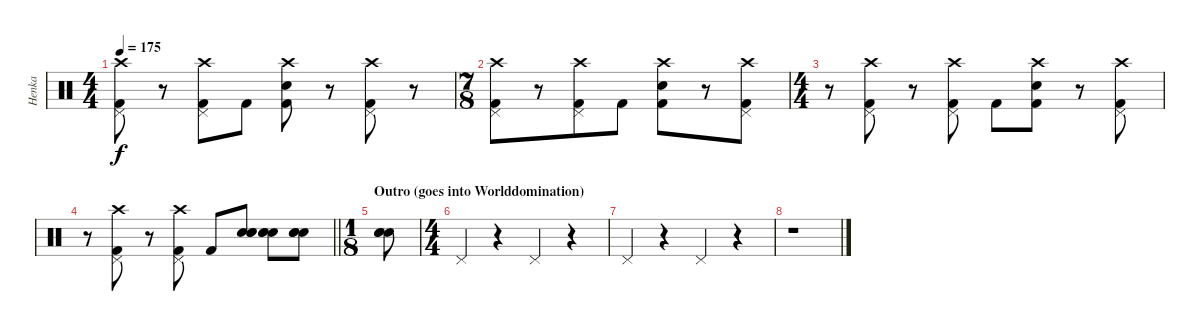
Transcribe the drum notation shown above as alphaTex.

\track ("Henka" "Henka") {instrument percussion}
\staff {score}
\articulation defaults
\ts (4 4)
\tempo 175
\clef neutral
\ks c
("Crash high (hit)" "Pedal Hi-Hat (hit)" "Kick (hit) 2").8{dy f} r.8 ("Crash high (hit)" "Pedal Hi-Hat (hit)" "Kick (hit) 2").8 "Kick (hit) 2".8 ("Crash high (hit)" "Snare (hit) 2" "Kick (hit) 2").8 r.8 ("Crash high (hit)" "Pedal Hi-Hat (hit)" "Kick (hit) 2").8 r.8 |
\ts (7 8)
("Crash high (hit)" "Pedal Hi-Hat (hit)" "Kick (hit) 2").8 r.8 ("Crash high (hit)" "Pedal Hi-Hat (hit)" "Kick (hit) 2").8 "Kick (hit) 2".8 ("Crash high (hit)" "Snare (hit) 2" "Kick (hit) 2").8 r.8 ("Crash high (hit)" "Pedal Hi-Hat (hit)" "Kick (hit) 2").8 |
\ts (4 4)
r.8 ("Crash high (hit)" "Pedal Hi-Hat (hit)" "Kick (hit) 2").8 r.8 ("Crash high (hit)" "Pedal Hi-Hat (hit)" "Kick (hit) 2").8 "Kick (hit) 2".8 ("Crash high (hit)" "Snare (hit) 2" "Kick (hit) 2").8 r.8 ("Crash high (hit)" "Pedal Hi-Hat (hit)" "Kick (hit) 2").8 |
\barLineRight lightlight
r.8 ("Crash high (hit)" "Pedal Hi-Hat (hit)" "Kick (hit) 2").8 r.8 ("Crash high (hit)" "Pedal Hi-Hat (hit)" "Kick (hit) 2").8 "Kick (hit) 2".8 ("Snare (hit) 2" "Electric Snare (hit)" "Snare (hit) 2").8 ("Snare (hit) 2" "Electric Snare (hit)" "Snare (hit) 2").8 ("Snare (hit) 2" "Electric Snare (hit)" "Snare (hit) 2").8 |
\ts (1 8)
\section ("" "Outro (goes into Worlddomination)")
("Snare (hit) 2" "Electric Snare (hit)" "Snare (hit) 2").8 |
\ts (4 4)
"Pedal Hi-Hat (hit)".4 r.4 "Pedal Hi-Hat (hit)".4 r.4 |
"Pedal Hi-Hat (hit)".4 r.4 "Pedal Hi-Hat (hit)".4 r.4 |
r.1
